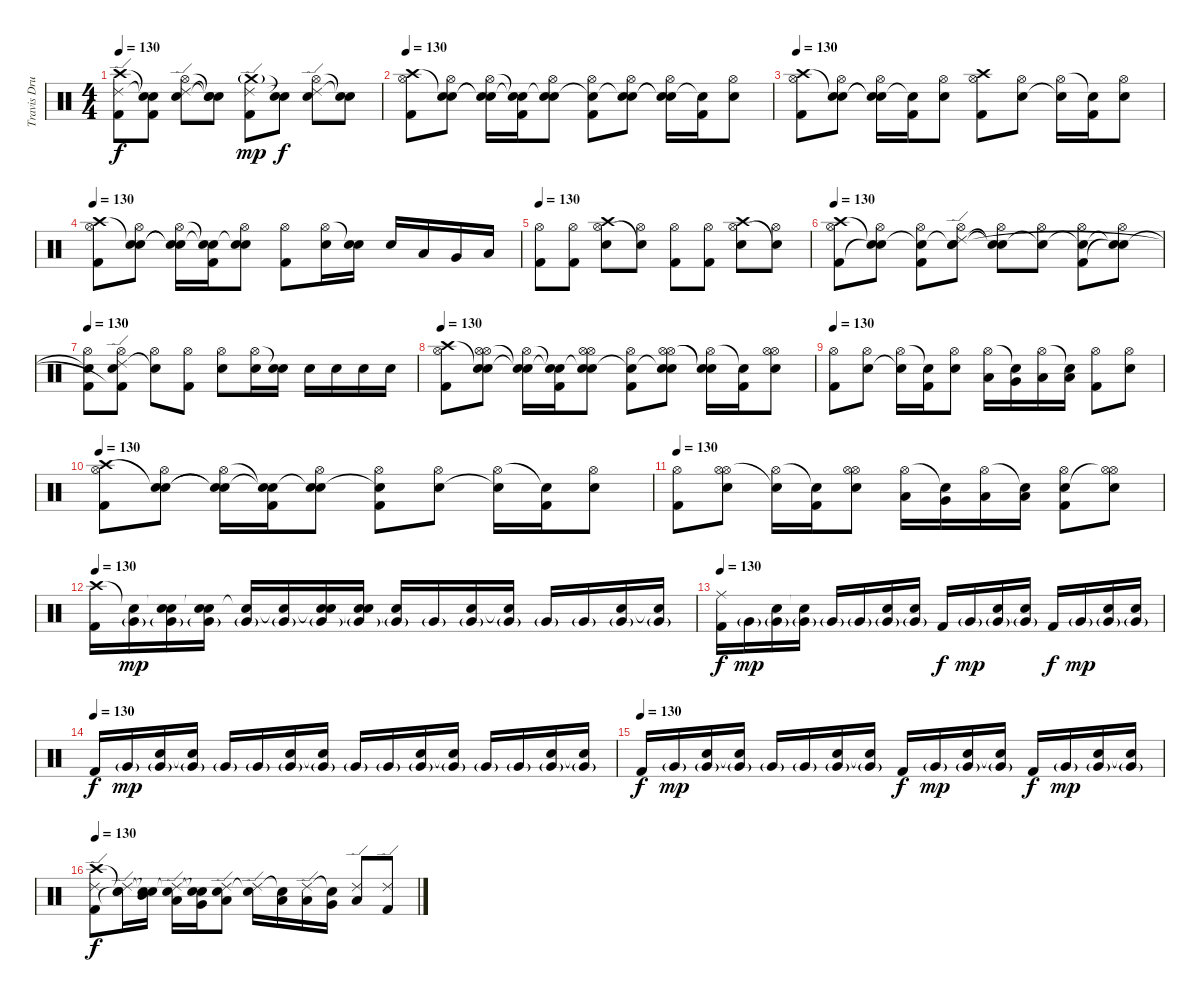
\track ("Travis Drums" "Travis Dru") {instrument percussion}
\staff {score}
\articulation defaults
\ts (4 4)
\tempo 130
\clef neutral
\ks c
("Crash high (hit)" "Ride (edge) 2" "Kick (hit) 2").8{dy f} ("Snare (hit)"{t} "Snare (hit)"{t} "Kick (hit) 2").8 ("Hi-Hat (open)" "Ride (edge) 2" "Electric Snare (hit)").8 ("Snare (hit)"{t} "Snare (hit)"{t} "Snare (hit)"{t}).8 ("Crash medium (hit)"{g} "Ride (edge) 2" "Kick (hit) 2").8{dy mp} ("Snare (hit)"{t} "Snare (hit)"{t}).8{dy f} ("Hi-Hat (open)" "Ride (edge) 2" "Electric Snare (hit)").8 ("Snare (hit)"{t} "Snare (hit)"{t}).8 |
\tempo 130
("Crash high (hit)" "Hi-Hat (open)" "Kick (hit) 2").8 ("Snare (hit)"{t} "Hi-Hat (open)" "Electric Snare (hit)").8 ("Snare (hit)"{t} "Hi-Hat (open)" "Snare (hit)"{t}).16 ("Snare (hit)"{t} "Snare (hit)"{t} "Kick (hit) 2").16 ("Snare (hit)"{t} "Hi-Hat (open)" "Electric Snare (hit)").8 ("Snare (hit)"{t} "Hi-Hat (open)" "Kick (hit) 2").8 ("Snare (hit)"{t} "Hi-Hat (open)" "Electric Snare (hit)").8 ("Snare (hit)"{t} "Hi-Hat (open)" "Snare (hit)"{t}).16 ("Snare (hit)"{t} "Kick (hit) 2").16 ("Hi-Hat (open)" "Electric Snare (hit)").8 |
\tempo 130
("Crash high (hit)" "Hi-Hat (open)" "Kick (hit) 2").8 ("Snare (hit)"{t} "Hi-Hat (open)" "Electric Snare (hit)").8 ("Snare (hit)"{t} "Hi-Hat (open)" "Snare (hit)"{t}).16 ("Snare (hit)"{t} "Kick (hit) 2").16 ("Hi-Hat (open)" "Electric Snare (hit)").8 ("Crash high (hit)" "Hi-Hat (open)" "Kick (hit) 2").8 ("Hi-Hat (open)" "Electric Snare (hit)").8 ("Hi-Hat (open)" "Snare (hit)"{t}).16 ("Snare (hit)"{t} "Kick (hit) 2").16 ("Hi-Hat (open)" "Electric Snare (hit)").8 |
\tempo 130
("Crash high (hit)" "Hi-Hat (open)" "Kick (hit) 2").8 ("Snare (hit)"{t} "Hi-Hat (open)" "Electric Snare (hit)").8 ("Snare (hit)"{t} "Hi-Hat (open)" "Snare (hit)"{t}).16 ("Snare (hit)"{t} "Snare (hit)"{t} "Kick (hit) 2").16 ("Snare (hit)"{t} "Hi-Hat (open)" "Electric Snare (hit)").8 ("Hi-Hat (open)" "Kick (hit) 2").8 ("Hi-Hat (open)" "Electric Snare (hit)").16 ("Snare (hit)"{t} "Electric Snare (hit)").16 "Electric Snare (hit)".16 "Low Tom (hit)".16 "Very Low Tom (hit)".16 "Low Floor Tom (hit)".16 |
\tempo 130
("Hi-Hat (open)" "Kick (hit) 2").8 ("Hi-Hat (open)" "Kick (hit) 2").8 ("Crash high (hit)" "Hi-Hat (open)" "Electric Snare (hit)").8 ("Hi-Hat (open)" "Snare (hit)"{t}).8 ("Hi-Hat (open)" "Kick (hit) 2").8 ("Hi-Hat (open)" "Kick (hit) 2").8 ("Crash high (hit)" "Hi-Hat (open)" "Electric Snare (hit)").8 ("Hi-Hat (open)" "Snare (hit)"{t}).8 |
\tempo 130
("Crash high (hit)" "Hi-Hat (open)" "Kick (hit) 2").8 ("Snare (hit)"{t} "Hi-Hat (open)" "Snare (hit)"{t}).8 ("Snare (hit)"{t} "Hi-Hat (open)" "Kick (hit) 2").8 ("Snare (hit)"{t} "Hi-Hat (open)" "Ride (edge) 2" "Electric Snare (hit)").8 ("Snare (hit)"{t} "Hi-Hat (open)" "Snare (hit)"{t}).8 ("Snare (hit)"{t} "Hi-Hat (open)").8 ("Snare (hit)"{t} "Hi-Hat (open)" "Kick (hit) 2").8 ("Snare (hit)"{t} "Hi-Hat (open)" "Snare (hit)"{t}).8 |
\tempo 130
("Snare (hit)"{t} "Hi-Hat (open)" "Kick (hit) 2").8 ("Hi-Hat (open)" "Ride (edge) 2" "Electric Snare (hit)" "Kick (hit) 2"{t}).8 ("Hi-Hat (open)" "Snare (hit)"{t}).8 ("Hi-Hat (open)" "Kick (hit) 2").8 ("Hi-Hat (open)" "Electric Snare (hit)").8 ("Hi-Hat (open)" "Electric Snare (hit)").16 ("Snare (hit)"{t} "Electric Snare (hit)").16 "Electric Snare (hit)".16 "Electric Snare (hit)".16 "Electric Snare (hit)".16 "Electric Snare (hit)".16 |
\tempo 130
("Crash high (hit)" "Hi-Hat (open)" "Kick (hit) 2").8 ("Snare (hit)"{t} "Hi-Hat (open)" "Hi-Hat (open)" "Electric Snare (hit)").8 ("Snare (hit)"{t} "Hi-Hat (open)" "Snare (hit)"{t}).16 ("Snare (hit)"{t} "Snare (hit)"{t} "Kick (hit) 2").16 ("Snare (hit)"{t} "Hi-Hat (open)" "Hi-Hat (open)" "Electric Snare (hit)").8 ("Snare (hit)"{t} "Hi-Hat (open)" "Kick (hit) 2").8 ("Snare (hit)"{t} "Hi-Hat (open)" "Hi-Hat (open)" "Electric Snare (hit)").8 ("Hi-Hat (open)" "Snare (hit)"{t} "Snare (hit)"{t}).16 ("Snare (hit)"{t} "Kick (hit) 2").16 ("Hi-Hat (open)" "Hi-Hat (open)" "Electric Snare (hit)").8 |
\tempo 130
("Hi-Hat (open)" "Kick (hit) 2").8 ("Hi-Hat (open)" "Electric Snare (hit)").8 ("Hi-Hat (open)" "Snare (hit)"{t}).16 ("Snare (hit)"{t} "Kick (hit) 2").16 ("Hi-Hat (open)" "Electric Snare (hit)").8 ("Hi-Hat (open)" "Low Tom (hit)").16 ("Snare (hit)"{t} "Very Low Tom (hit)").16 ("Hi-Hat (open)" "Low Floor Tom (hit)").16 ("Snare (hit)"{t} "Low Floor Tom (hit)").16 ("Hi-Hat (open)" "Kick (hit) 2").8 ("Hi-Hat (open)" "Electric Snare (hit)").8 |
\tempo 130
("Crash high (hit)" "Hi-Hat (open)" "Kick (hit) 2").8 ("Snare (hit)"{t} "Hi-Hat (open)" "Electric Snare (hit)").8 ("Snare (hit)"{t} "Hi-Hat (open)" "Snare (hit)"{t}).16 ("Snare (hit)"{t} "Snare (hit)"{t} "Kick (hit) 2").16 ("Snare (hit)"{t} "Hi-Hat (open)" "Electric Snare (hit)").8 ("Snare (hit)"{t} "Hi-Hat (open)" "Kick (hit) 2").8 ("Hi-Hat (open)" "Electric Snare (hit)").8 ("Hi-Hat (open)" "Snare (hit)"{t}).16 ("Snare (hit)"{t} "Kick (hit) 2").16 ("Hi-Hat (open)" "Electric Snare (hit)").8 |
\tempo 130
("Hi-Hat (open)" "Kick (hit) 2").8 ("Hi-Hat (open)" "Hi-Hat (open)" "Electric Snare (hit)").8 ("Hi-Hat (open)" "Snare (hit)"{t}).16 ("Snare (hit)"{t} "Kick (hit) 2").16 ("Hi-Hat (open)" "Hi-Hat (open)" "Electric Snare (hit)").8 ("Hi-Hat (open)" "Low Tom (hit)").16 ("Snare (hit)"{t} "Very Low Tom (hit)").16 ("Hi-Hat (open)" "Low Floor Tom (hit)").16 ("Snare (hit)"{t} "Low Floor Tom (hit)").16 ("Hi-Hat (open)" "Electric Snare (hit)" "Kick (hit) 2").8 ("Hi-Hat (open)" "Hi-Hat (open)"{t} "Electric Snare (hit)").8 |
\tempo 130
("Crash high (hit)" "Kick (hit) 2").16 ("Snare (hit)"{t} "Very Low Tom (hit)"{g}).16{dy mp} ("Snare (hit)"{t} "Electric Snare (hit)" "Very Low Tom (hit)"{g}).16 ("Snare (hit)"{t} "Snare (hit)"{t} "Very Low Tom (hit)"{g}).16 ("Snare (hit)"{t} "Very Low Tom (hit)"{g}).16 ("Snare (hit)"{t} "Very Low Tom (hit)"{g}).16 ("Snare (hit)"{t} "Electric Snare (hit)" "Very Low Tom (hit)"{g}).16 ("Snare (hit)"{t} "Snare (hit)"{t} "Very Low Tom (hit)"{g}).16 ("Snare (hit)"{t} "Very Low Tom (hit)"{g}).16 "Very Low Tom (hit)"{g}.16 ("Electric Snare (hit)" "Very Low Tom (hit)"{g}).16 ("Snare (hit)"{t} "Very Low Tom (hit)"{g}).16 "Very Low Tom (hit)"{g}.16 "Very Low Tom (hit)"{g}.16 ("Electric Snare (hit)" "Very Low Tom (hit)"{g}).16 ("Snare (hit)"{t} "Very Low Tom (hit)"{g}).16 |
\tempo 130
("Ride (middle)" "Kick (hit) 2").16{dy f} "Very Low Tom (hit)"{g}.16{dy mp} ("Electric Snare (hit)" "Very Low Tom (hit)"{g}).16 ("Snare (hit)"{t} "Very Low Tom (hit)"{g}).16 "Very Low Tom (hit)"{g}.16 "Very Low Tom (hit)"{g}.16 ("Electric Snare (hit)" "Very Low Tom (hit)"{g}).16 ("Snare (hit)"{t} "Very Low Tom (hit)"{g}).16 "Kick (hit) 2".16{dy f} "Very Low Tom (hit)"{g}.16{dy mp} ("Electric Snare (hit)" "Very Low Tom (hit)"{g}).16 ("Snare (hit)"{t} "Very Low Tom (hit)"{g}).16 "Kick (hit) 2".16{dy f} "Very Low Tom (hit)"{g}.16{dy mp} ("Electric Snare (hit)" "Very Low Tom (hit)"{g}).16 ("Snare (hit)"{t} "Very Low Tom (hit)"{g}).16 |
\tempo (130)
"Kick (hit) 2".16{dy f} "Very Low Tom (hit)"{g}.16{dy mp} ("Electric Snare (hit)" "Very Low Tom (hit)"{g}).16 ("Snare (hit)"{t} "Very Low Tom (hit)"{g}).16 "Very Low Tom (hit)"{g}.16 "Very Low Tom (hit)"{g}.16 ("Electric Snare (hit)" "Very Low Tom (hit)"{g}).16 ("Snare (hit)"{t} "Very Low Tom (hit)"{g}).16 "Very Low Tom (hit)"{g}.16 "Very Low Tom (hit)"{g}.16 ("Electric Snare (hit)" "Very Low Tom (hit)"{g}).16 ("Snare (hit)"{t} "Very Low Tom (hit)"{g}).16 "Very Low Tom (hit)"{g}.16 "Very Low Tom (hit)"{g}.16 ("Electric Snare (hit)" "Very Low Tom (hit)"{g}).16 ("Snare (hit)"{t} "Very Low Tom (hit)"{g}).16 |
\tempo (130)
"Kick (hit) 2".16{dy f} "Very Low Tom (hit)"{g}.16{dy mp} ("Electric Snare (hit)" "Very Low Tom (hit)"{g}).16 ("Snare (hit)"{t} "Very Low Tom (hit)"{g}).16 "Very Low Tom (hit)"{g}.16 "Very Low Tom (hit)"{g}.16 ("Electric Snare (hit)" "Very Low Tom (hit)"{g}).16 ("Snare (hit)"{t} "Very Low Tom (hit)"{g}).16 "Kick (hit) 2".16{dy f} "Very Low Tom (hit)"{g}.16{dy mp} ("Electric Snare (hit)" "Very Low Tom (hit)"{g}).16 ("Snare (hit)"{t} "Very Low Tom (hit)"{g}).16 "Kick (hit) 2".16{dy f} "Very Low Tom (hit)"{g}.16{dy mp} ("Electric Snare (hit)" "Very Low Tom (hit)"{g}).16 ("Snare (hit)"{t} "Very Low Tom (hit)"{g}).16 |
\tempo 130
("Crash high (hit)" "Ride (edge) 2" "Kick (hit) 2").8{dy f} ("Snare (hit)"{t} "Ride (edge) 2" "Snare (hit)"{t}).16 ("Snare (hit)"{t} "Snare (hit)"{t} "Mid Tom (hit)").16 ("Snare (hit)"{t} "Ride (edge) 2" "Low Tom (hit)").16 ("Snare (hit)"{t} "Snare (hit)"{t} "Very Low Tom (hit)").16 ("Ride (edge) 2" "Electric Snare (hit)" "Low Floor Tom (hit)").8 ("Ride (edge) 2" "Snare (hit)"{t}).16 ("Snare (hit)"{t} "Low Tom (hit)").16 ("Ride (edge) 2" "Low Tom (hit)").16 ("Snare (hit)"{t} "Very Low Tom (hit)").16 ("Ride (edge) 2" "Low Floor Tom (hit)").8 ("Ride (edge) 2" "Kick (hit) 2").8
